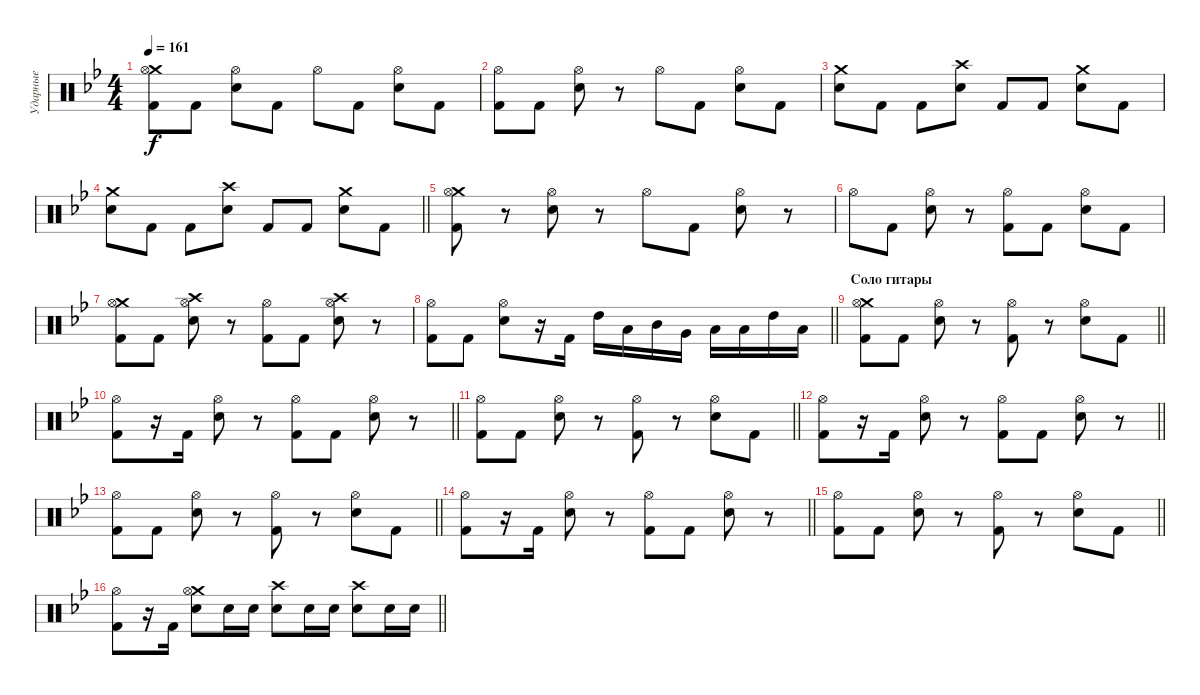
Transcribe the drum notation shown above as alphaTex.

\track ("Ударные" "Ударные") {instrument percussion}
\staff {score}
\articulation defaults
\ts (4 4)
\tempo 161
\clef neutral
\ks gminor
("Crash medium (hit)" "Kick (hit) 2" "Hi-Hat (open)").8{dy f} "Kick (hit) 2".8 ("Electric Snare (hit)" "Hi-Hat (open)").8 "Kick (hit) 2".8 "Hi-Hat (open)".8 "Kick (hit) 2".8 ("Electric Snare (hit)" "Hi-Hat (open)").8 "Kick (hit) 2".8 |
("Kick (hit) 2" "Hi-Hat (open)").8 "Kick (hit) 2".8 ("Electric Snare (hit)" "Hi-Hat (open)").8 r.8 "Hi-Hat (open)".8 "Kick (hit) 2".8 ("Electric Snare (hit)" "Hi-Hat (open)").8 "Kick (hit) 2".8 |
("Crash medium (hit)" "Electric Snare (hit)").8 "Kick (hit) 2".8 "Kick (hit) 2".8 ("Crash high (hit)" "Electric Snare (hit)").8 "Kick (hit) 2".8 "Kick (hit) 2".8 ("Crash medium (hit)" "Electric Snare (hit)").8 "Kick (hit) 2".8 |
\barLineRight lightlight
("Crash medium (hit)" "Electric Snare (hit)").8 "Kick (hit) 2".8 "Kick (hit) 2".8 ("Crash high (hit)" "Electric Snare (hit)").8 "Kick (hit) 2".8 "Kick (hit) 2".8 ("Crash medium (hit)" "Electric Snare (hit)").8 "Kick (hit) 2".8 |
\section ("" "")
("Crash medium (hit)" "Kick (hit) 2" "Hi-Hat (open)").8 r.8 ("Electric Snare (hit)" "Hi-Hat (open)").8 r.8 "Hi-Hat (open)".8 "Kick (hit) 2".8 ("Electric Snare (hit)" "Hi-Hat (open)").8 r.8 |
"Hi-Hat (open)".8 "Kick (hit) 2".8 ("Electric Snare (hit)" "Hi-Hat (open)").8 r.8 ("Kick (hit) 2" "Hi-Hat (open)").8 "Kick (hit) 2".8 ("Electric Snare (hit)" "Hi-Hat (open)").8 "Kick (hit) 2".8 |
("Crash medium (hit)" "Kick (hit) 2" "Hi-Hat (open)").8 "Kick (hit) 2".8 ("Crash high (hit)" "Electric Snare (hit)" "Hi-Hat (open)").8 r.8 ("Kick (hit) 2" "Hi-Hat (open)").8 "Kick (hit) 2".8 ("Crash high (hit)" "Electric Snare (hit)" "Hi-Hat (open)").8 r.8 |
\barLineRight lightlight
("Kick (hit) 2" "Hi-Hat (open)").8 "Kick (hit) 2".8 ("Electric Snare (hit)" "Hi-Hat (open)").8 r.16 "Kick (hit) 2".16 "High Tom (hit)".16 "Low Floor Tom (hit)".16 "Mid Tom (hit)".16 "Very Low Tom (hit)".16 "Low Tom (hit)".16 "Low Floor Tom (hit)".16 "High Tom (hit)".16 "Low Floor Tom (hit)".16 |
\section ("" "Соло гитары")
\barLineRight lightlight
("Crash medium (hit)" "Kick (hit) 2" "Hi-Hat (open)").8 "Kick (hit) 2".8 ("Electric Snare (hit)" "Hi-Hat (open)").8 r.8 ("Kick (hit) 2" "Hi-Hat (open)").8 r.8 ("Electric Snare (hit)" "Hi-Hat (open)").8 "Kick (hit) 2".8 |
\barLineRight lightlight
("Kick (hit) 2" "Hi-Hat (open)").8 r.16 "Kick (hit) 2".16 ("Electric Snare (hit)" "Hi-Hat (open)").8 r.8 ("Kick (hit) 2" "Hi-Hat (open)").8 "Kick (hit) 2".8 ("Electric Snare (hit)" "Hi-Hat (open)").8 r.8 |
\barLineRight lightlight
("Kick (hit) 2" "Hi-Hat (open)").8 "Kick (hit) 2".8 ("Electric Snare (hit)" "Hi-Hat (open)").8 r.8 ("Kick (hit) 2" "Hi-Hat (open)").8 r.8 ("Electric Snare (hit)" "Hi-Hat (open)").8 "Kick (hit) 2".8 |
\barLineRight lightlight
("Kick (hit) 2" "Hi-Hat (open)").8 r.16 "Kick (hit) 2".16 ("Electric Snare (hit)" "Hi-Hat (open)").8 r.8 ("Kick (hit) 2" "Hi-Hat (open)").8 "Kick (hit) 2".8 ("Electric Snare (hit)" "Hi-Hat (open)").8 r.8 |
\barLineRight lightlight
("Kick (hit) 2" "Hi-Hat (open)").8 "Kick (hit) 2".8 ("Electric Snare (hit)" "Hi-Hat (open)").8 r.8 ("Kick (hit) 2" "Hi-Hat (open)").8 r.8 ("Electric Snare (hit)" "Hi-Hat (open)").8 "Kick (hit) 2".8 |
\barLineRight lightlight
("Kick (hit) 2" "Hi-Hat (open)").8 r.16 "Kick (hit) 2".16 ("Electric Snare (hit)" "Hi-Hat (open)").8 r.8 ("Kick (hit) 2" "Hi-Hat (open)").8 "Kick (hit) 2".8 ("Electric Snare (hit)" "Hi-Hat (open)").8 r.8 |
\barLineRight lightlight
("Kick (hit) 2" "Hi-Hat (open)").8 "Kick (hit) 2".8 ("Electric Snare (hit)" "Hi-Hat (open)").8 r.8 ("Kick (hit) 2" "Hi-Hat (open)").8 r.8 ("Electric Snare (hit)" "Hi-Hat (open)").8 "Kick (hit) 2".8 |
\barLineRight lightlight
("Kick (hit) 2" "Hi-Hat (open)").8 r.16 "Kick (hit) 2".16 ("Crash medium (hit)" "Electric Snare (hit)" "Hi-Hat (open)").8 "Electric Snare (hit)".16 "Electric Snare (hit)".16 ("Crash high (hit)" "Electric Snare (hit)").8 "Electric Snare (hit)".16 "Electric Snare (hit)".16 ("Crash high (hit)" "Electric Snare (hit)").8 "Electric Snare (hit)".16 "Electric Snare (hit)".16
